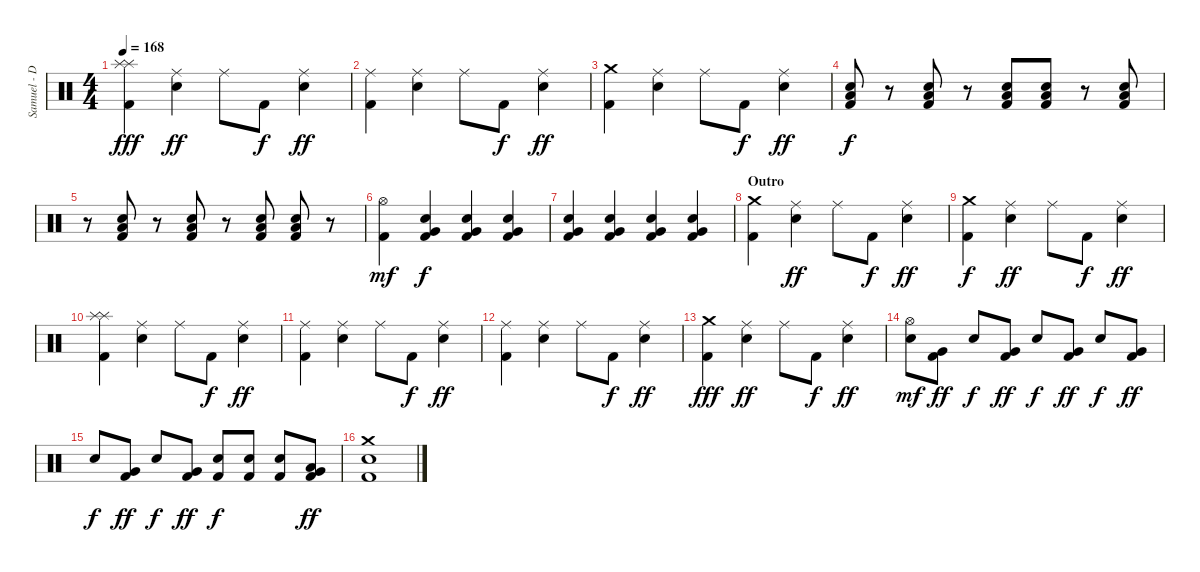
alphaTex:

\track ("Samuel - Drums" "Samuel - D") {instrument percussion}
\staff {score}
\articulation defaults
\ts (4 4)
\tempo 168
\clef neutral
\ks c
("Splash (hit)" "Splash (hit)" "Kick (hit) 2").4{dy fff} ("Ride (middle)" "Electric Snare (hit)").4{dy ff} "Ride (middle)".8 "Kick (hit) 2".8{dy f} ("Ride (middle)" "Electric Snare (hit)").4{dy ff} |
("Ride (middle)" "Kick (hit) 2").4 ("Ride (middle)" "Electric Snare (hit)").4 "Ride (middle)".8 "Kick (hit) 2".8{dy f} ("Ride (middle)" "Electric Snare (hit)").4{dy ff} |
("Crash medium (hit)" "Kick (hit) 2").4 ("Ride (middle)" "Electric Snare (hit)").4 "Ride (middle)".8 "Kick (hit) 2".8{dy f} ("Ride (middle)" "Electric Snare (hit)").4{dy ff} |
("Electric Snare (hit)" "Low Tom (hit)" "Kick (hit) 2").8{dy f} r.8 ("Electric Snare (hit)" "Low Tom (hit)" "Kick (hit) 2").8 r.8 ("Electric Snare (hit)" "Low Tom (hit)" "Kick (hit) 2").8 ("Electric Snare (hit)" "Low Tom (hit)" "Kick (hit) 2").8 r.8 ("Electric Snare (hit)" "Low Tom (hit)" "Kick (hit) 2").8 |
r.8 ("Electric Snare (hit)" "Low Tom (hit)" "Kick (hit) 2").8 r.8 ("Electric Snare (hit)" "Low Tom (hit)" "Kick (hit) 2").8 r.8 ("Electric Snare (hit)" "Low Tom (hit)" "Kick (hit) 2").8 ("Electric Snare (hit)" "Low Tom (hit)" "Kick (hit) 2").8 r.8 |
("Hi-Hat (open)" "Kick (hit) 2").4{dy mf} ("Electric Snare (hit)" "Very Low Tom (hit)" "Kick (hit) 2").4{dy f} ("Electric Snare (hit)" "Very Low Tom (hit)" "Kick (hit) 2").4 ("Electric Snare (hit)" "Very Low Tom (hit)" "Kick (hit) 2").4 |
("Electric Snare (hit)" "Very Low Tom (hit)" "Kick (hit) 2").4 ("Electric Snare (hit)" "Very Low Tom (hit)" "Kick (hit) 2").4 ("Electric Snare (hit)" "Very Low Tom (hit)" "Kick (hit) 2").4 ("Electric Snare (hit)" "Very Low Tom (hit)" "Kick (hit) 2").4 |
\section ("" "Outro")
("Crash medium (hit)" "Kick (hit) 2").4 ("Ride (middle)" "Electric Snare (hit)").4{dy ff} "Ride (middle)".8 "Kick (hit) 2".8{dy f} ("Ride (middle)" "Electric Snare (hit)").4{dy ff} |
("Crash medium (hit)" "Kick (hit) 2").4{dy f} ("Ride (middle)" "Electric Snare (hit)").4{dy ff} "Ride (middle)".8 "Kick (hit) 2".8{dy f} ("Ride (middle)" "Electric Snare (hit)").4{dy ff} |
("Splash (hit)" "Splash (hit)" "Kick (hit) 2").4 ("Ride (middle)" "Electric Snare (hit)").4 "Ride (middle)".8 "Kick (hit) 2".8{dy f} ("Ride (middle)" "Electric Snare (hit)").4{dy ff} |
("Ride (middle)" "Kick (hit) 2").4 ("Ride (middle)" "Electric Snare (hit)").4 "Ride (middle)".8 "Kick (hit) 2".8{dy f} ("Ride (middle)" "Electric Snare (hit)").4{dy ff} |
("Ride (middle)" "Kick (hit) 2").4 ("Ride (middle)" "Electric Snare (hit)").4 "Ride (middle)".8 "Kick (hit) 2".8{dy f} ("Ride (middle)" "Electric Snare (hit)").4{dy ff} |
("Crash medium (hit)" "Kick (hit) 2").4{dy fff} ("Ride (middle)" "Electric Snare (hit)").4{dy ff} "Ride (middle)".8 "Kick (hit) 2".8{dy f} ("Ride (middle)" "Electric Snare (hit)").4{dy ff} |
("Hi-Hat (open)" "Electric Snare (hit)").8{dy mf} ("Very Low Tom (hit)" "Kick (hit) 2").8{dy ff} "Electric Snare (hit)".8{dy f} ("Very Low Tom (hit)" "Kick (hit) 2").8{dy ff} "Electric Snare (hit)".8{dy f} ("Very Low Tom (hit)" "Kick (hit) 2").8{dy ff} "Electric Snare (hit)".8{dy f} ("Very Low Tom (hit)" "Kick (hit) 2").8{dy ff} |
"Electric Snare (hit)".8{dy f} ("Very Low Tom (hit)" "Kick (hit) 2").8{dy ff} "Electric Snare (hit)".8{dy f} ("Very Low Tom (hit)" "Kick (hit) 2").8{dy ff} ("Electric Snare (hit)" "Kick (hit) 2").8{dy f} ("Electric Snare (hit)" "Kick (hit) 2").8 ("Electric Snare (hit)" "Kick (hit) 2").8 ("Low Tom (hit)" "Very Low Tom (hit)" "Kick (hit) 2").8{dy ff} |
("Crash medium (hit)" "Electric Snare (hit)" "Kick (hit) 2").1
